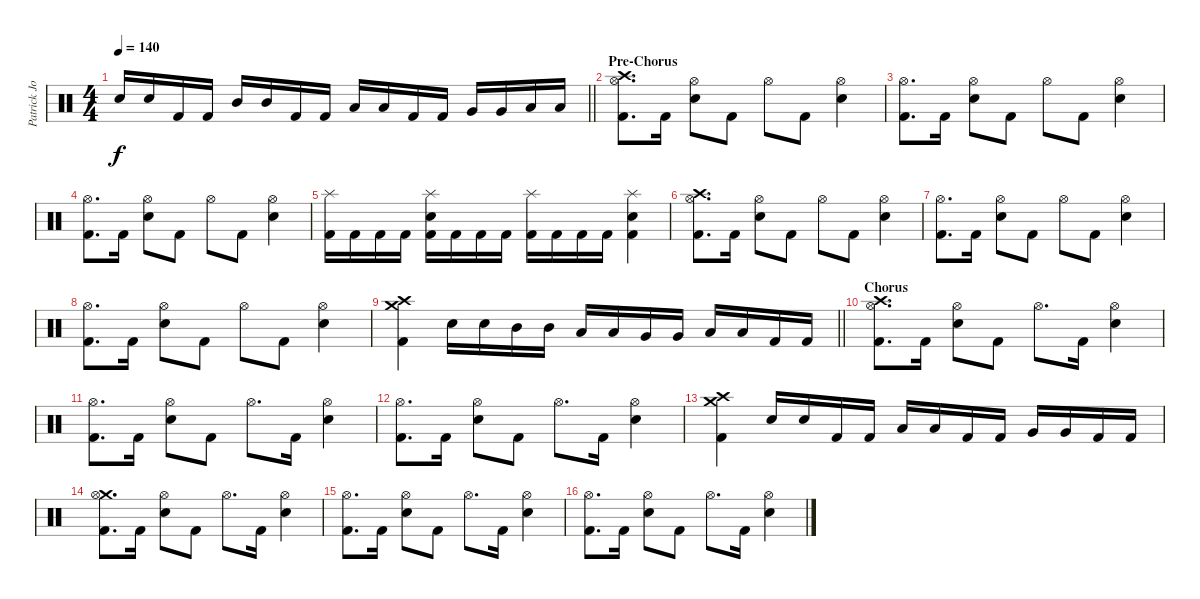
\track ("Patrick Johansson" "Patrick Jo") {instrument percussion}
\staff {score}
\articulation defaults
\ts (4 4)
\tempo 140
\clef neutral
\barLineRight lightlight
\ks c "Snare (hit) 2".16{dy f} "Snare (hit) 2".16 "Kick (hit) 2".16 "Kick (hit) 2".16 "Mid Tom (hit)".16 "Mid Tom (hit)".16 "Kick (hit) 2".16 "Kick (hit) 2".16 "Low Tom (hit)".16 "Low Tom (hit)".16 "Kick (hit) 2".16 "Kick (hit) 2".16 "Very Low Tom (hit)".16 "Very Low Tom (hit)".16 "Low Floor Tom (hit)".16 "Low Floor Tom (hit)".16
|
\section ("" "Pre-Chorus")
("Crash high (hit)" "Hi-Hat (open)" "Kick (hit) 2").8{d} "Kick (hit) 2".16 ("Hi-Hat (open)" "Snare (hit) 2").8 "Kick (hit) 2".8 "Hi-Hat (open)".8 "Kick (hit) 2".8 ("Hi-Hat (open)" "Snare (hit) 2").4 |
("Hi-Hat (open)" "Kick (hit) 2").8{d} "Kick (hit) 2".16 ("Hi-Hat (open)" "Snare (hit) 2").8 "Kick (hit) 2".8 "Hi-Hat (open)".8 "Kick (hit) 2".8 ("Hi-Hat (open)" "Snare (hit) 2").4 |
("Hi-Hat (open)" "Kick (hit) 2").8{d} "Kick (hit) 2".16 ("Hi-Hat (open)" "Snare (hit) 2").8 "Kick (hit) 2".8 "Hi-Hat (open)".8 "Kick (hit) 2".8 ("Hi-Hat (open)" "Snare (hit) 2").4 |
("Splash (hit)" "Kick (hit) 2").16 "Kick (hit) 2".16 "Kick (hit) 2".16 "Kick (hit) 2".16 ("Splash (hit)" "Snare (hit) 2" "Kick (hit) 2").16 "Kick (hit) 2".16 "Kick (hit) 2".16 "Kick (hit) 2".16 ("Splash (hit)" "Kick (hit) 2").16 "Kick (hit) 2".16 "Kick (hit) 2".16 "Kick (hit) 2".16 ("Splash (hit)" "Snare (hit) 2" "Kick (hit) 2").4 |
("Crash high (hit)" "Hi-Hat (open)" "Kick (hit) 2").8{d} "Kick (hit) 2".16 ("Hi-Hat (open)" "Snare (hit) 2").8 "Kick (hit) 2".8 "Hi-Hat (open)".8 "Kick (hit) 2".8 ("Hi-Hat (open)" "Snare (hit) 2").4 |
("Hi-Hat (open)" "Kick (hit) 2").8{d} "Kick (hit) 2".16 ("Hi-Hat (open)" "Snare (hit) 2").8 "Kick (hit) 2".8 "Hi-Hat (open)".8 "Kick (hit) 2".8 ("Hi-Hat (open)" "Snare (hit) 2").4 |
("Hi-Hat (open)" "Kick (hit) 2").8{d} "Kick (hit) 2".16 ("Hi-Hat (open)" "Snare (hit) 2").8 "Kick (hit) 2".8 "Hi-Hat (open)".8 "Kick (hit) 2".8 ("Hi-Hat (open)" "Snare (hit) 2").4 |
\barLineRight lightlight
("Crash medium (hit)" "Crash high (hit)" "Kick (hit) 2").4 "Snare (hit) 2".16 "Snare (hit) 2".16 "Mid Tom (hit)".16 "Mid Tom (hit)".16 "Low Tom (hit)".16 "Low Tom (hit)".16 "Very Low Tom (hit)".16 "Very Low Tom (hit)".16 "Low Floor Tom (hit)".16 "Low Floor Tom (hit)".16 "Kick (hit) 2".16 "Kick (hit) 2".16 |
\section ("" "Chorus")
("Crash high (hit)" "Hi-Hat (open)" "Kick (hit) 2").8{d} "Kick (hit) 2".16 ("Hi-Hat (open)" "Snare (hit) 2").8 "Kick (hit) 2".8 "Hi-Hat (open)".8{d} "Kick (hit) 2".16 ("Hi-Hat (open)" "Snare (hit) 2").4 |
("Hi-Hat (open)" "Kick (hit) 2").8{d} "Kick (hit) 2".16 ("Hi-Hat (open)" "Snare (hit) 2").8 "Kick (hit) 2".8 "Hi-Hat (open)".8{d} "Kick (hit) 2".16 ("Hi-Hat (open)" "Snare (hit) 2").4 |
("Hi-Hat (open)" "Kick (hit) 2").8{d} "Kick (hit) 2".16 ("Hi-Hat (open)" "Snare (hit) 2").8 "Kick (hit) 2".8 "Hi-Hat (open)".8{d} "Kick (hit) 2".16 ("Hi-Hat (open)" "Snare (hit) 2").4 |
("Crash medium (hit)" "Crash high (hit)" "Kick (hit) 2").4 "Snare (hit) 2".16 "Snare (hit) 2".16 "Kick (hit) 2".16 "Kick (hit) 2".16 "Low Tom (hit)".16 "Low Tom (hit)".16 "Kick (hit) 2".16 "Kick (hit) 2".16 "Very Low Tom (hit)".16 "Very Low Tom (hit)".16 "Kick (hit) 2".16 "Kick (hit) 2".16 |
("Crash medium (hit)" "Hi-Hat (open)" "Kick (hit) 2").8{d} "Kick (hit) 2".16 ("Hi-Hat (open)" "Snare (hit) 2").8 "Kick (hit) 2".8 "Hi-Hat (open)".8{d} "Kick (hit) 2".16 ("Hi-Hat (open)" "Snare (hit) 2").4 |
("Hi-Hat (open)" "Kick (hit) 2").8{d} "Kick (hit) 2".16 ("Hi-Hat (open)" "Snare (hit) 2").8 "Kick (hit) 2".8 "Hi-Hat (open)".8{d} "Kick (hit) 2".16 ("Hi-Hat (open)" "Snare (hit) 2").4 |
("Hi-Hat (open)" "Kick (hit) 2").8{d} "Kick (hit) 2".16 ("Hi-Hat (open)" "Snare (hit) 2").8 "Kick (hit) 2".8 "Hi-Hat (open)".8{d} "Kick (hit) 2".16 ("Hi-Hat (open)" "Snare (hit) 2").4
